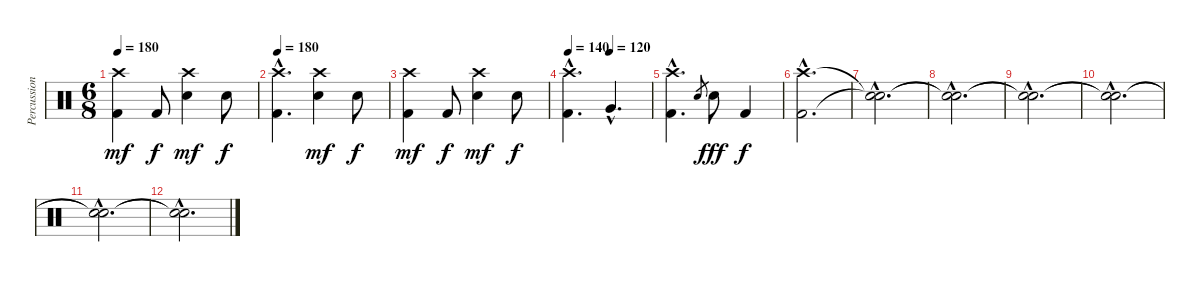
\track ("Percussion" "Percussion") {instrument percussion}
\staff {score}
\articulation defaults
\ts (6 8)
\tempo 180
\clef neutral
\ks c
("Crash high (hit)" "Kick (hit) 2").4{dy mf} "Kick (hit) 2".8{dy f} ("Crash high (hit)" "Electric Snare (hit)").4{dy mf} "Electric Snare (hit)".8{dy f} |
\tempo 180
("Crash high (hit)"{hac} "Kick (hit) 2"{hac}).4{d} ("Crash high (hit)" "Electric Snare (hit)").4{dy mf} "Electric Snare (hit)".8{dy f} |
("Crash high (hit)" "Kick (hit) 2").4{dy mf} "Kick (hit) 2".8{dy f} ("Crash high (hit)" "Electric Snare (hit)").4{dy mf} "Electric Snare (hit)".8{dy f} |
\tempo 140
\tempo (120 0.5)
("Crash high (hit)"{hac} "Kick (hit) 2"{hac}).4{d} "Very Low Tom (hit)"{hac}.4{d} |
("Crash high (hit)"{hac} "Kick (hit) 2"{hac}).4{d} "Electric Snare (hit)".8{gr} "Electric Snare (hit)".8{dy fff} "Kick (hit) 2".4{dy f} |
("Crash high (hit)"{hac} "Kick (hit) 2"{hac}).2{d} |
("Snare (hit)"{hac t} "Snare (hit)"{hac t}).2{d} |
("Snare (hit)"{hac t} "Snare (hit)"{hac t}).2{d} |
("Snare (hit)"{hac t} "Snare (hit)"{hac t}).2{d} |
("Snare (hit)"{hac t} "Snare (hit)"{hac t}).2{d} |
("Snare (hit)"{hac t} "Snare (hit)"{hac t}).2{d} |
("Snare (hit)"{hac t} "Snare (hit)"{hac t}).2{d}
